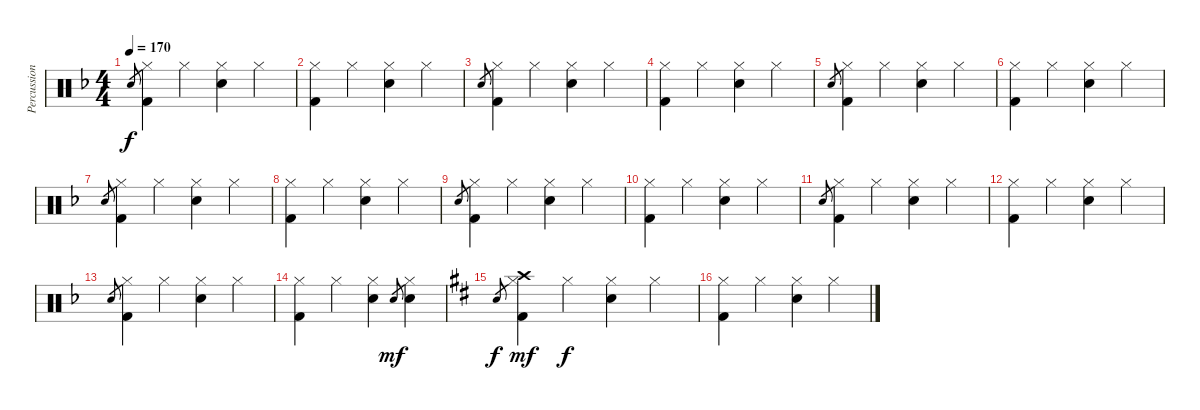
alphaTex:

\track ("Percussion [Nick Mason]" "Percussion") {instrument percussion}
\staff {score}
\articulation defaults
\ts (4 4)
\tempo 170
\clef neutral
\ks dminor "Snare (hit) 2".8{gr dy f}
("Hi-Hat (closed)" "Kick (hit) 2").4 "Hi-Hat (closed)".4 ("Hi-Hat (closed)" "Snare (hit) 2").4 "Hi-Hat (closed)".4 |
("Hi-Hat (closed)" "Kick (hit) 2").4 "Hi-Hat (closed)".4 ("Hi-Hat (closed)" "Snare (hit) 2").4 "Hi-Hat (closed)".4 |
"Snare (hit) 2".8{gr} ("Hi-Hat (closed)" "Kick (hit) 2").4 "Hi-Hat (closed)".4 ("Hi-Hat (closed)" "Snare (hit) 2").4 "Hi-Hat (closed)".4 |
("Hi-Hat (closed)" "Kick (hit) 2").4 "Hi-Hat (closed)".4 ("Hi-Hat (closed)" "Snare (hit) 2").4 "Hi-Hat (closed)".4 |
"Snare (hit) 2".8{gr} ("Hi-Hat (closed)" "Kick (hit) 2").4 "Hi-Hat (closed)".4 ("Hi-Hat (closed)" "Snare (hit) 2").4 "Hi-Hat (closed)".4 |
("Hi-Hat (closed)" "Kick (hit) 2").4 "Hi-Hat (closed)".4 ("Hi-Hat (closed)" "Snare (hit) 2").4 "Hi-Hat (closed)".4 |
"Snare (hit) 2".8{gr} ("Hi-Hat (closed)" "Kick (hit) 2").4 "Hi-Hat (closed)".4 ("Hi-Hat (closed)" "Snare (hit) 2").4 "Hi-Hat (closed)".4 |
("Hi-Hat (closed)" "Kick (hit) 2").4 "Hi-Hat (closed)".4 ("Hi-Hat (closed)" "Snare (hit) 2").4 "Hi-Hat (closed)".4 |
"Snare (hit) 2".8{gr} ("Hi-Hat (closed)" "Kick (hit) 2").4 "Hi-Hat (closed)".4 ("Hi-Hat (closed)" "Snare (hit) 2").4 "Hi-Hat (closed)".4 |
("Hi-Hat (closed)" "Kick (hit) 2").4 "Hi-Hat (closed)".4 ("Hi-Hat (closed)" "Snare (hit) 2").4 "Hi-Hat (closed)".4 |
"Snare (hit) 2".8{gr} ("Hi-Hat (closed)" "Kick (hit) 2").4 "Hi-Hat (closed)".4 ("Hi-Hat (closed)" "Snare (hit) 2").4 "Hi-Hat (closed)".4 |
("Hi-Hat (closed)" "Kick (hit) 2").4 "Hi-Hat (closed)".4 ("Hi-Hat (closed)" "Snare (hit) 2").4 "Hi-Hat (closed)".4 |
"Snare (hit) 2".8{gr} ("Hi-Hat (closed)" "Kick (hit) 2").4 "Hi-Hat (closed)".4 ("Hi-Hat (closed)" "Snare (hit) 2").4 "Hi-Hat (closed)".4 |
("Hi-Hat (closed)" "Kick (hit) 2").4 "Hi-Hat (closed)".4 ("Hi-Hat (closed)" "Snare (hit) 2").4 "Snare (hit) 2".8{gr dy mf} ("Hi-Hat (closed)" "Snare (hit) 2").4 |
\ks d "Snare (hit) 2".8{gr dy f}
("Crash high (hit)" "Hi-Hat (closed)" "Kick (hit) 2").4{dy mf} "Hi-Hat (closed)".4{dy f} ("Hi-Hat (closed)" "Snare (hit) 2").4 "Hi-Hat (closed)".4 |
("Hi-Hat (closed)" "Kick (hit) 2").4 "Hi-Hat (closed)".4 ("Hi-Hat (closed)" "Snare (hit) 2").4 "Hi-Hat (closed)".4
